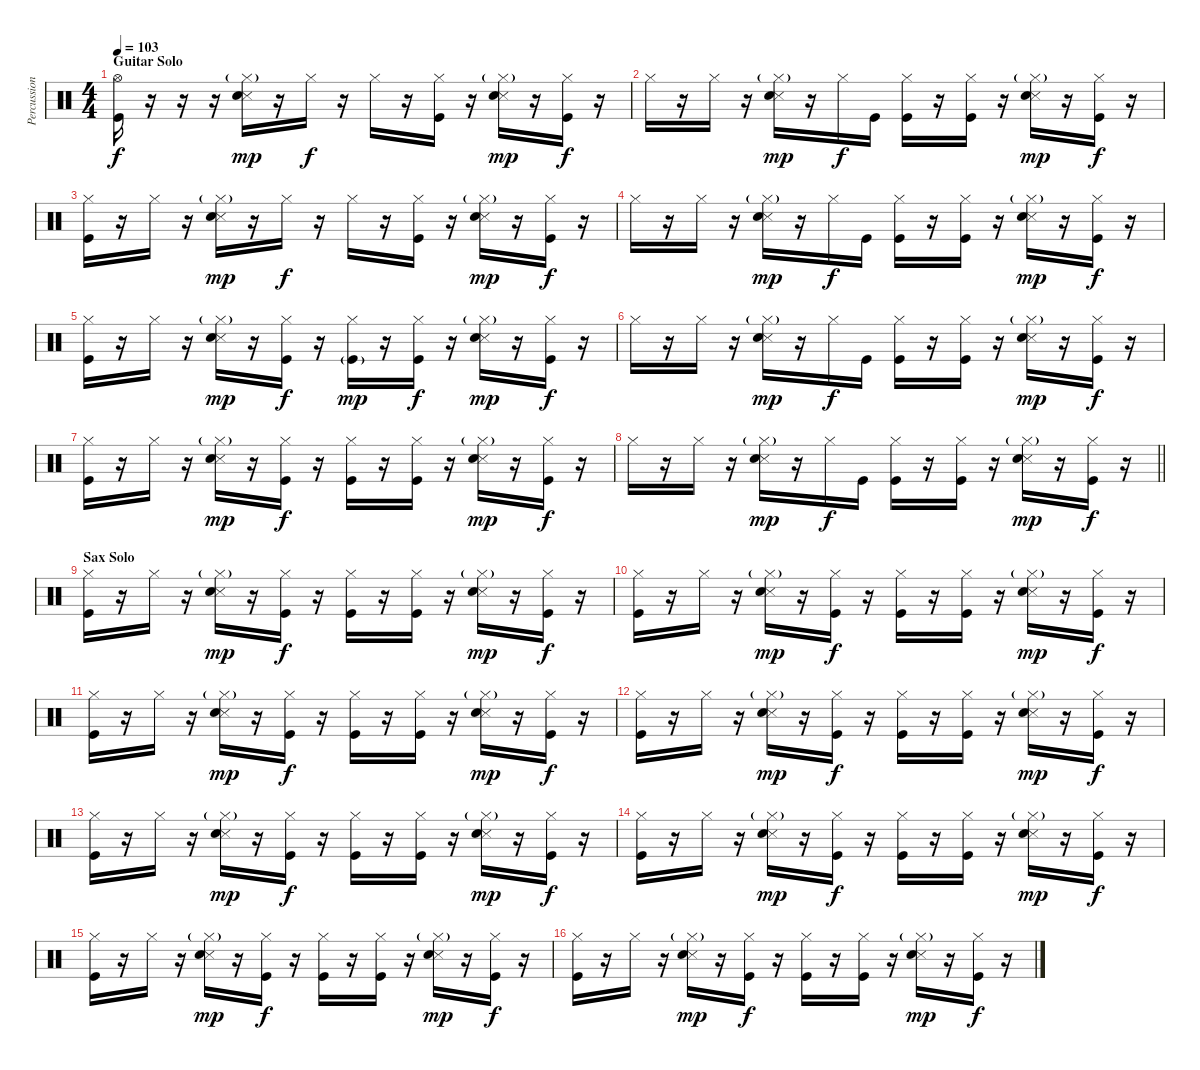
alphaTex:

\track ("Percussion" "Percussion") {instrument percussion}
\staff {score}
\articulation defaults
\ts (4 4)
\section ("" "Guitar Solo")
\tempo 103
\clef neutral
\ks c
("Hi-Hat (open)" "Kick (hit)").16{dy f} r.16 r.16 r.16 ("Hi-Hat (closed)"{g} "Snare (side stick) 3" "Snare (hit) 2").16{dy mp} r.16 "Hi-Hat (closed)".16{dy f} r.16 "Hi-Hat (closed)".16 r.16 ("Hi-Hat (closed)" "Kick (hit)").16 r.16 ("Hi-Hat (closed)"{g} "Snare (side stick) 3" "Snare (hit) 2").16{dy mp} r.16 ("Hi-Hat (closed)" "Kick (hit)").16{dy f} r.16 |
"Hi-Hat (closed)".16 r.16 "Hi-Hat (closed)".16 r.16 ("Hi-Hat (closed)"{g} "Snare (side stick) 3" "Snare (hit) 2").16{dy mp} r.16 "Hi-Hat (closed)".16{dy f} "Kick (hit)".16 ("Hi-Hat (closed)" "Kick (hit)").16 r.16 ("Hi-Hat (closed)" "Kick (hit)").16 r.16 ("Hi-Hat (closed)"{g} "Snare (side stick) 3" "Snare (hit) 2").16{dy mp} r.16 ("Hi-Hat (closed)" "Kick (hit)").16{dy f} r.16 |
("Hi-Hat (closed)" "Kick (hit)").16 r.16 "Hi-Hat (closed)".16 r.16 ("Hi-Hat (closed)"{g} "Snare (side stick) 3" "Snare (hit) 2").16{dy mp} r.16 "Hi-Hat (closed)".16{dy f} r.16 "Hi-Hat (closed)".16 r.16 ("Hi-Hat (closed)" "Kick (hit)").16 r.16 ("Hi-Hat (closed)"{g} "Snare (side stick) 3" "Snare (hit) 2").16{dy mp} r.16 ("Hi-Hat (closed)" "Kick (hit)").16{dy f} r.16 |
"Hi-Hat (closed)".16 r.16 "Hi-Hat (closed)".16 r.16 ("Hi-Hat (closed)"{g} "Snare (side stick) 3" "Snare (hit) 2").16{dy mp} r.16 "Hi-Hat (closed)".16{dy f} "Kick (hit)".16 ("Hi-Hat (closed)" "Kick (hit)").16 r.16 ("Hi-Hat (closed)" "Kick (hit)").16 r.16 ("Hi-Hat (closed)"{g} "Snare (side stick) 3" "Snare (hit) 2").16{dy mp} r.16 ("Hi-Hat (closed)" "Kick (hit)").16{dy f} r.16 |
("Hi-Hat (closed)" "Kick (hit)").16 r.16 "Hi-Hat (closed)".16 r.16 ("Hi-Hat (closed)"{g} "Snare (side stick) 3" "Snare (hit) 2").16{dy mp} r.16 ("Hi-Hat (closed)" "Kick (hit)").16{dy f} r.16 ("Hi-Hat (closed)" "Kick (hit)"{g}).16{dy mp} r.16 ("Hi-Hat (closed)" "Kick (hit)").16{dy f} r.16 ("Hi-Hat (closed)"{g} "Snare (side stick) 3" "Snare (hit) 2").16{dy mp} r.16 ("Hi-Hat (closed)" "Kick (hit)").16{dy f} r.16 |
"Hi-Hat (closed)".16 r.16 "Hi-Hat (closed)".16 r.16 ("Hi-Hat (closed)"{g} "Snare (side stick) 3" "Snare (hit) 2").16{dy mp} r.16 "Hi-Hat (closed)".16{dy f} "Kick (hit)".16 ("Hi-Hat (closed)" "Kick (hit)").16 r.16 ("Hi-Hat (closed)" "Kick (hit)").16 r.16 ("Hi-Hat (closed)"{g} "Snare (side stick) 3" "Snare (hit) 2").16{dy mp} r.16 ("Hi-Hat (closed)" "Kick (hit)").16{dy f} r.16 |
("Hi-Hat (closed)" "Kick (hit)").16 r.16 "Hi-Hat (closed)".16 r.16 ("Hi-Hat (closed)"{g} "Snare (side stick) 3" "Snare (hit) 2").16{dy mp} r.16 ("Hi-Hat (closed)" "Kick (hit)").16{dy f} r.16 ("Hi-Hat (closed)" "Kick (hit)").16 r.16 ("Hi-Hat (closed)" "Kick (hit)").16 r.16 ("Hi-Hat (closed)"{g} "Snare (side stick) 3" "Snare (hit) 2").16{dy mp} r.16 ("Hi-Hat (closed)" "Kick (hit)").16{dy f} r.16 |
\barLineRight lightlight "Hi-Hat (closed)".16
r.16 "Hi-Hat (closed)".16 r.16 ("Hi-Hat (closed)"{g} "Snare (side stick) 3" "Snare (hit) 2").16{dy mp} r.16 "Hi-Hat (closed)".16{dy f} "Kick (hit)".16 ("Hi-Hat (closed)" "Kick (hit)").16 r.16 ("Hi-Hat (closed)" "Kick (hit)").16 r.16 ("Hi-Hat (closed)"{g} "Snare (side stick) 3" "Snare (hit) 2").16{dy mp} r.16 ("Hi-Hat (closed)" "Kick (hit)").16{dy f} r.16 |
\section ("" "Sax Solo")
("Hi-Hat (closed)" "Kick (hit)").16 r.16 "Hi-Hat (closed)".16 r.16 ("Hi-Hat (closed)"{g} "Snare (side stick) 3" "Snare (hit) 2").16{dy mp} r.16 ("Hi-Hat (closed)" "Kick (hit)").16{dy f} r.16 ("Hi-Hat (closed)" "Kick (hit)").16 r.16 ("Hi-Hat (closed)" "Kick (hit)").16 r.16 ("Hi-Hat (closed)"{g} "Snare (side stick) 3" "Snare (hit) 2").16{dy mp} r.16 ("Hi-Hat (closed)" "Kick (hit)").16{dy f} r.16 |
("Hi-Hat (closed)" "Kick (hit)").16 r.16 "Hi-Hat (closed)".16 r.16 ("Hi-Hat (closed)"{g} "Snare (side stick) 3" "Snare (hit) 2").16{dy mp} r.16 ("Hi-Hat (closed)" "Kick (hit)").16{dy f} r.16 ("Hi-Hat (closed)" "Kick (hit)").16 r.16 ("Hi-Hat (closed)" "Kick (hit)").16 r.16 ("Hi-Hat (closed)"{g} "Snare (side stick) 3" "Snare (hit) 2").16{dy mp} r.16 ("Hi-Hat (closed)" "Kick (hit)").16{dy f} r.16 |
("Hi-Hat (closed)" "Kick (hit)").16 r.16 "Hi-Hat (closed)".16 r.16 ("Hi-Hat (closed)"{g} "Snare (side stick) 3" "Snare (hit) 2").16{dy mp} r.16 ("Hi-Hat (closed)" "Kick (hit)").16{dy f} r.16 ("Hi-Hat (closed)" "Kick (hit)").16 r.16 ("Hi-Hat (closed)" "Kick (hit)").16 r.16 ("Hi-Hat (closed)"{g} "Snare (side stick) 3" "Snare (hit) 2").16{dy mp} r.16 ("Hi-Hat (closed)" "Kick (hit)").16{dy f} r.16 |
("Hi-Hat (closed)" "Kick (hit)").16 r.16 "Hi-Hat (closed)".16 r.16 ("Hi-Hat (closed)"{g} "Snare (side stick) 3" "Snare (hit) 2").16{dy mp} r.16 ("Hi-Hat (closed)" "Kick (hit)").16{dy f} r.16 ("Hi-Hat (closed)" "Kick (hit)").16 r.16 ("Hi-Hat (closed)" "Kick (hit)").16 r.16 ("Hi-Hat (closed)"{g} "Snare (side stick) 3" "Snare (hit) 2").16{dy mp} r.16 ("Hi-Hat (closed)" "Kick (hit)").16{dy f} r.16 |
("Hi-Hat (closed)" "Kick (hit)").16 r.16 "Hi-Hat (closed)".16 r.16 ("Hi-Hat (closed)"{g} "Snare (side stick) 3" "Snare (hit) 2").16{dy mp} r.16 ("Hi-Hat (closed)" "Kick (hit)").16{dy f} r.16 ("Hi-Hat (closed)" "Kick (hit)").16 r.16 ("Hi-Hat (closed)" "Kick (hit)").16 r.16 ("Hi-Hat (closed)"{g} "Snare (side stick) 3" "Snare (hit) 2").16{dy mp} r.16 ("Hi-Hat (closed)" "Kick (hit)").16{dy f} r.16 |
("Hi-Hat (closed)" "Kick (hit)").16 r.16 "Hi-Hat (closed)".16 r.16 ("Hi-Hat (closed)"{g} "Snare (side stick) 3" "Snare (hit) 2").16{dy mp} r.16 ("Hi-Hat (closed)" "Kick (hit)").16{dy f} r.16 ("Hi-Hat (closed)" "Kick (hit)").16 r.16 ("Hi-Hat (closed)" "Kick (hit)").16 r.16 ("Hi-Hat (closed)"{g} "Snare (side stick) 3" "Snare (hit) 2").16{dy mp} r.16 ("Hi-Hat (closed)" "Kick (hit)").16{dy f} r.16 |
("Hi-Hat (closed)" "Kick (hit)").16 r.16 "Hi-Hat (closed)".16 r.16 ("Hi-Hat (closed)"{g} "Snare (side stick) 3" "Snare (hit) 2").16{dy mp} r.16 ("Hi-Hat (closed)" "Kick (hit)").16{dy f} r.16 ("Hi-Hat (closed)" "Kick (hit)").16 r.16 ("Hi-Hat (closed)" "Kick (hit)").16 r.16 ("Hi-Hat (closed)"{g} "Snare (side stick) 3" "Snare (hit) 2").16{dy mp} r.16 ("Hi-Hat (closed)" "Kick (hit)").16{dy f} r.16 |
("Hi-Hat (closed)" "Kick (hit)").16 r.16 "Hi-Hat (closed)".16 r.16 ("Hi-Hat (closed)"{g} "Snare (side stick) 3" "Snare (hit) 2").16{dy mp} r.16 ("Hi-Hat (closed)" "Kick (hit)").16{dy f} r.16 ("Hi-Hat (closed)" "Kick (hit)").16 r.16 ("Hi-Hat (closed)" "Kick (hit)").16 r.16 ("Hi-Hat (closed)"{g} "Snare (side stick) 3" "Snare (hit) 2").16{dy mp} r.16 ("Hi-Hat (closed)" "Kick (hit)").16{dy f} r.16
